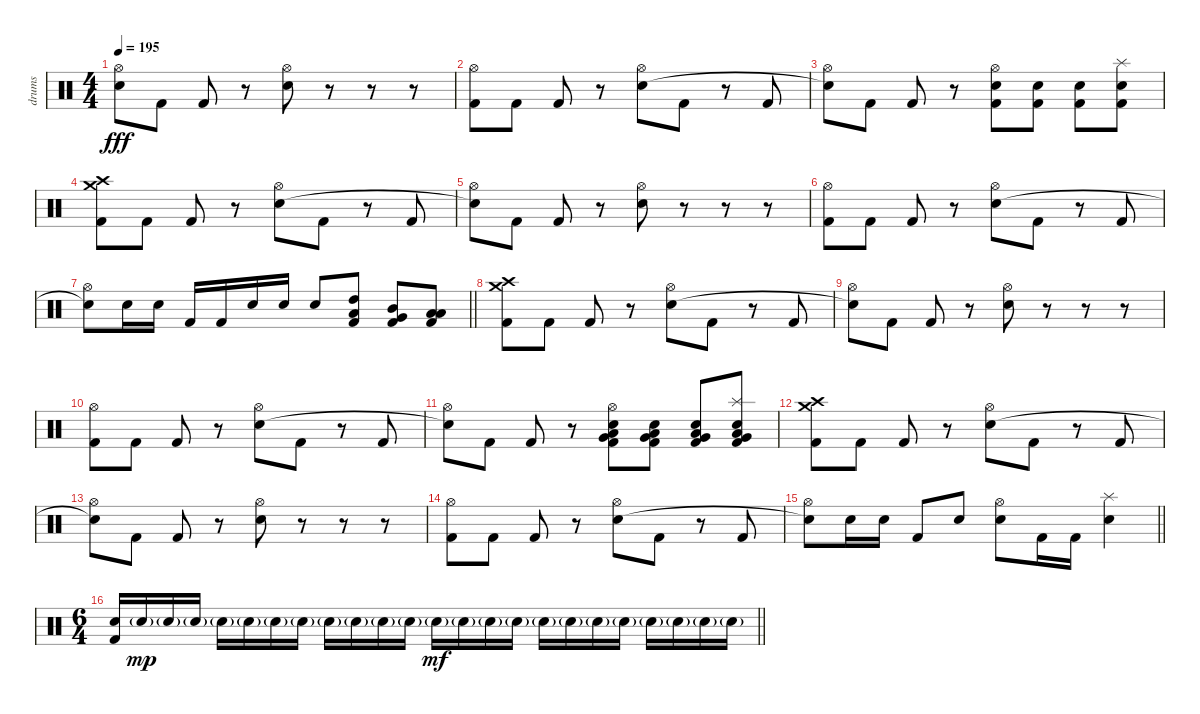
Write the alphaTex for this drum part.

\track ("drums" "drums") {instrument percussion}
\staff {score}
\articulation defaults
\ts (4 4)
\tempo 195
\clef neutral
\ks c
("Hi-Hat (open)" "Snare (hit)"{t}).8{dy fff} "Kick (hit) 2".8 "Kick (hit) 2".8 r.8 ("Hi-Hat (open)" "Electric Snare (hit)").8 r.8 r.8 r.8 |
("Hi-Hat (open)" "Kick (hit) 2").8 "Kick (hit) 2".8 "Kick (hit) 2".8 r.8 ("Hi-Hat (open)" "Electric Snare (hit)").8 "Kick (hit) 2".8 r.8 "Kick (hit) 2".8 |
("Hi-Hat (open)" "Snare (hit)"{t}).8 "Kick (hit) 2".8 "Kick (hit) 2".8 r.8 ("Hi-Hat (open)" "Electric Snare (hit)" "Kick (hit) 2").8 ("Electric Snare (hit)" "Kick (hit) 2").8 ("Electric Snare (hit)" "Kick (hit) 2").8 ("Splash (hit)" "Electric Snare (hit)" "Kick (hit) 2").8 |
("Crash high (hit)" "Crash medium (hit)" "Kick (hit) 2").8 "Kick (hit) 2".8 "Kick (hit) 2".8 r.8 ("Hi-Hat (open)" "Electric Snare (hit)").8 "Kick (hit) 2".8 r.8 "Kick (hit) 2".8 |
("Hi-Hat (open)" "Snare (hit)"{t}).8 "Kick (hit) 2".8 "Kick (hit) 2".8 r.8 ("Hi-Hat (open)" "Electric Snare (hit)").8 r.8 r.8 r.8 |
("Hi-Hat (open)" "Kick (hit) 2").8 "Kick (hit) 2".8 "Kick (hit) 2".8 r.8 ("Hi-Hat (open)" "Electric Snare (hit)").8 "Kick (hit) 2".8 r.8 "Kick (hit) 2".8 |
\barLineRight lightlight
("Hi-Hat (open)" "Snare (hit)"{t}).8 "Electric Snare (hit)".16 "Electric Snare (hit)".16 "Kick (hit) 2".16 "Kick (hit) 2".16 "Electric Snare (hit)".16 "Electric Snare (hit)".16 "Electric Snare (hit)".8 ("High Tom (hit)" "Low Tom (hit)" "Kick (hit) 2").8 ("Mid Tom (hit)" "Very Low Tom (hit)" "Kick (hit) 2").8 ("Low Tom (hit)" "Low Floor Tom (hit)" "Kick (hit) 2").8 |
\section ("" "")
("Crash high (hit)" "Crash medium (hit)" "Kick (hit) 2").8 "Kick (hit) 2".8 "Kick (hit) 2".8 r.8 ("Hi-Hat (open)" "Electric Snare (hit)").8 "Kick (hit) 2".8 r.8 "Kick (hit) 2".8 |
("Hi-Hat (open)" "Snare (hit)"{t}).8 "Kick (hit) 2".8 "Kick (hit) 2".8 r.8 ("Hi-Hat (open)" "Electric Snare (hit)").8 r.8 r.8 r.8 |
("Hi-Hat (open)" "Kick (hit) 2").8 "Kick (hit) 2".8 "Kick (hit) 2".8 r.8 ("Hi-Hat (open)" "Electric Snare (hit)").8 "Kick (hit) 2".8 r.8 "Kick (hit) 2".8 |
("Hi-Hat (open)" "Snare (hit)"{t}).8 "Kick (hit) 2".8 "Kick (hit) 2".8 r.8 ("Hi-Hat (open)" "Electric Snare (hit)" "Very Low Tom (hit)" "Low Floor Tom (hit)" "Kick (hit) 2").8 ("Electric Snare (hit)" "Very Low Tom (hit)" "Low Floor Tom (hit)" "Kick (hit) 2").8 ("Electric Snare (hit)" "Very Low Tom (hit)" "Low Floor Tom (hit)" "Kick (hit) 2").8 ("Splash (hit)" "Electric Snare (hit)" "Very Low Tom (hit)" "Low Floor Tom (hit)" "Kick (hit) 2").8 |
("Crash high (hit)" "Crash medium (hit)" "Kick (hit) 2").8 "Kick (hit) 2".8 "Kick (hit) 2".8 r.8 ("Hi-Hat (open)" "Electric Snare (hit)").8 "Kick (hit) 2".8 r.8 "Kick (hit) 2".8 |
("Hi-Hat (open)" "Snare (hit)"{t}).8 "Kick (hit) 2".8 "Kick (hit) 2".8 r.8 ("Hi-Hat (open)" "Electric Snare (hit)").8 r.8 r.8 r.8 |
("Hi-Hat (open)" "Kick (hit) 2").8 "Kick (hit) 2".8 "Kick (hit) 2".8 r.8 ("Hi-Hat (open)" "Electric Snare (hit)").8 "Kick (hit) 2".8 r.8 "Kick (hit) 2".8 |
\barLineRight lightlight
("Hi-Hat (open)" "Snare (hit)"{t}).8 "Electric Snare (hit)".16 "Electric Snare (hit)".16 "Kick (hit) 2".8 "Electric Snare (hit)".8 ("Hi-Hat (open)" "Electric Snare (hit)").8 "Kick (hit) 2".16 "Kick (hit) 2".16 ("Splash (hit)" "Electric Snare (hit)").4 |
\ts (6 4)
\section ("" "")
\barLineRight lightlight
("Electric Snare (hit)" "Kick (hit) 2").16 "Electric Snare (hit)"{g}.16{dy mp} "Electric Snare (hit)"{g}.16 "Electric Snare (hit)"{g}.16 "Electric Snare (hit)"{g}.16 "Electric Snare (hit)"{g}.16 "Electric Snare (hit)"{g}.16 "Electric Snare (hit)"{g}.16 "Electric Snare (hit)"{g}.16 "Electric Snare (hit)"{g}.16 "Electric Snare (hit)"{g}.16 "Electric Snare (hit)"{g}.16 "Electric Snare (hit)"{g}.16{dy mf} "Electric Snare (hit)"{g}.16 "Electric Snare (hit)"{g}.16 "Electric Snare (hit)"{g}.16 "Electric Snare (hit)"{g}.16 "Electric Snare (hit)"{g}.16 "Electric Snare (hit)"{g}.16 "Electric Snare (hit)"{g}.16 "Electric Snare (hit)"{g}.16 "Electric Snare (hit)"{g}.16 "Electric Snare (hit)"{g}.16 "Electric Snare (hit)"{g}.16
